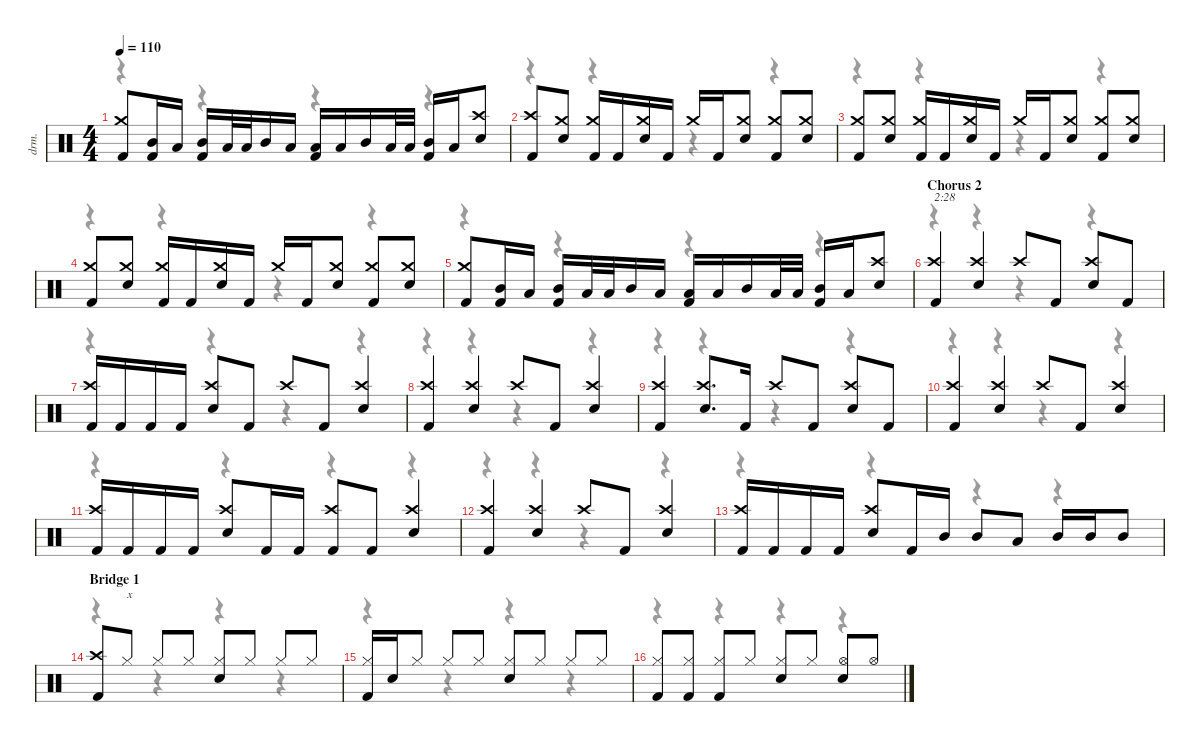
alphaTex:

\defaultSystemsLayout 4
\hideDynamics
\bracketExtendMode nobrackets
\otherSystemsTrackNameOrientation horizontal
\track ("Drums" "drm.") {instrument percussion}
\staff {score}
\articulation defaults
\voice
\ts (4 4)
\tempo 110
\clef neutral
\ks c
("Crash medium (hit)" "Kick (hit) 2").8{dy f beam Up} ("Mid Tom (hit)" "Kick (hit) 2").16{beam Up} "Low Tom (hit)".16{beam Up} ("Mid Tom (hit)" "Kick (hit) 2").16{beam Up} "Low Tom (hit)".32{beam Up} "Low Tom (hit)".32{beam Up} "Mid Tom (hit)".16{beam Up} "Low Tom (hit)".16{beam Up} ("Low Tom (hit)" "Kick (hit) 2").16{beam Up} "Low Tom (hit)".16{beam Up} "Mid Tom (hit)".16{beam Up} "Low Tom (hit)".32{beam Up} "Low Tom (hit)".32{beam Up} ("Mid Tom (hit)" "Kick (hit) 2").16{beam Up} "Low Tom (hit)".16{beam Up} ("Crash high (hit)" "Snare (hit) 2").8{beam Up} |
("Crash high (hit)" "Kick (hit) 2").8{beam Up} ("Crash medium (hit)" "Snare (hit) 2").8{beam Up} ("Crash medium (hit)" "Kick (hit) 2").16{beam Up} "Kick (hit) 2".16{beam Up} ("Crash medium (hit)" "Snare (hit) 2").16{beam Up} "Kick (hit) 2".16{beam Up} "Crash medium (hit)".16{beam Up} "Kick (hit) 2".16{beam Up} ("Crash medium (hit)" "Snare (hit) 2").8{beam Up} ("Crash medium (hit)" "Kick (hit) 2").8{beam Up} ("Crash medium (hit)" "Snare (hit) 2").8{beam Up} |
("Crash medium (hit)" "Kick (hit) 2").8{beam Up} ("Crash medium (hit)" "Snare (hit) 2").8{beam Up} ("Crash medium (hit)" "Kick (hit) 2").16{beam Up} "Kick (hit) 2".16{beam Up} ("Crash medium (hit)" "Snare (hit) 2").16{beam Up} "Kick (hit) 2".16{beam Up} "Crash medium (hit)".16{beam Up} "Kick (hit) 2".16{beam Up} ("Crash medium (hit)" "Snare (hit) 2").8{beam Up} ("Crash medium (hit)" "Kick (hit) 2").8{beam Up} ("Crash medium (hit)" "Snare (hit) 2").8{beam Up} |
("Crash medium (hit)" "Kick (hit) 2").8{beam Up} ("Crash medium (hit)" "Snare (hit) 2").8{beam Up} ("Crash medium (hit)" "Kick (hit) 2").16{beam Up} "Kick (hit) 2".16{beam Up} ("Crash medium (hit)" "Snare (hit) 2").16{beam Up} "Kick (hit) 2".16{beam Up} "Crash medium (hit)".16{beam Up} "Kick (hit) 2".16{beam Up} ("Crash medium (hit)" "Snare (hit) 2").8{beam Up} ("Crash medium (hit)" "Kick (hit) 2").8{beam Up} ("Crash medium (hit)" "Snare (hit) 2").8{beam Up} |
("Crash medium (hit)" "Kick (hit) 2").8{beam Up} ("Mid Tom (hit)" "Kick (hit) 2").16{beam Up} "Low Tom (hit)".16{beam Up} ("Mid Tom (hit)" "Kick (hit) 2").16{beam Up} "Low Tom (hit)".32{beam Up} "Low Tom (hit)".32{beam Up} "Mid Tom (hit)".16{beam Up} "Low Tom (hit)".16{beam Up} ("Low Tom (hit)" "Kick (hit) 2").16{beam Up} "Low Tom (hit)".16{beam Up} "Mid Tom (hit)".16{beam Up} "Low Tom (hit)".32{beam Up} "Low Tom (hit)".32{beam Up} ("Mid Tom (hit)" "Kick (hit) 2").16{beam Up} "Low Tom (hit)".16{beam Up} ("Crash high (hit)" "Snare (hit) 2").8{beam Up} |
\section ("" "Chorus 2")
("Crash high (hit)" "Kick (hit) 2").4{txt "2:28" beam Up} ("Crash high (hit)" "Snare (hit) 2").4{beam Up} "Crash high (hit)".8{beam Up} "Kick (hit) 2".8{beam Up} ("Crash high (hit)" "Snare (hit) 2").8{beam Up} "Kick (hit) 2".8{beam Up} |
("Crash high (hit)" "Kick (hit) 2").16{beam Up} "Kick (hit) 2".16{beam Up} "Kick (hit) 2".16{beam Up} "Kick (hit) 2".16{beam Up} ("Crash high (hit)" "Snare (hit) 2").8{beam Up} "Kick (hit) 2".8{beam Up} "Crash high (hit)".8{beam Up} "Kick (hit) 2".8{beam Up} ("Crash high (hit)" "Snare (hit) 2").4{beam Up} |
("Crash high (hit)" "Kick (hit) 2").4{beam Up} ("Crash high (hit)" "Snare (hit) 2").4{beam Up} "Crash high (hit)".8{beam Up} "Kick (hit) 2".8{beam Up} ("Crash high (hit)" "Snare (hit) 2").4{beam Up} |
("Crash high (hit)" "Kick (hit) 2").4{beam Up} ("Crash high (hit)" "Snare (hit) 2").8{d beam Up} "Kick (hit) 2".16{beam Up} "Crash high (hit)".8{beam Up} "Kick (hit) 2".8{beam Up} ("Crash high (hit)" "Snare (hit) 2").8{beam Up} "Kick (hit) 2".8{beam Up} |
("Crash high (hit)" "Kick (hit) 2").4{beam Up} ("Crash high (hit)" "Snare (hit) 2").4{beam Up} "Crash high (hit)".8{beam Up} "Kick (hit) 2".8{beam Up} ("Crash high (hit)" "Snare (hit) 2").4{beam Up} |
("Crash high (hit)" "Kick (hit) 2").16{beam Up} "Kick (hit) 2".16{beam Up} "Kick (hit) 2".16{beam Up} "Kick (hit) 2".16{beam Up} ("Crash high (hit)" "Snare (hit) 2").8{beam Up} "Kick (hit) 2".16{beam Up} "Kick (hit) 2".16{beam Up} ("Crash high (hit)" "Kick (hit) 2").8{beam Up} "Kick (hit) 2".8{beam Up} ("Crash high (hit)" "Snare (hit) 2").4{beam Up} |
("Crash high (hit)" "Kick (hit) 2").4{beam Up} ("Crash high (hit)" "Snare (hit) 2").4{beam Up} "Crash high (hit)".8{beam Up} "Kick (hit) 2".8{beam Up} ("Crash high (hit)" "Snare (hit) 2").4{beam Up} |
("Crash high (hit)" "Kick (hit) 2").16{beam Up} "Kick (hit) 2".16{beam Up} "Kick (hit) 2".16{beam Up} "Kick (hit) 2".16{beam Up} ("Crash high (hit)" "Snare (hit) 2").8{beam Up} "Kick (hit) 2".16{beam Up} "Mid Tom (hit)".16{beam Up} "Mid Tom (hit)".8{beam Up} "Low Tom (hit)".8{beam Up} "Mid Tom (hit)".16{beam Up} "Mid Tom (hit)".16{beam Up} "Mid Tom (hit)".8{beam Up} |
\section ("" "Bridge 1")
("Crash high (hit)" "Kick (hit) 2").8{beam Up} "Hi-Hat (closed)".8{txt "x" beam Up} "Hi-Hat (closed)".8{beam Up} "Hi-Hat (closed)".8{beam Up} ("Hi-Hat (closed)" "Snare (hit) 2").8{beam Up} "Hi-Hat (closed)".8{beam Up} "Hi-Hat (closed)".8{beam Up} "Hi-Hat (closed)".8{beam Up} |
("Hi-Hat (closed)" "Kick (hit) 2").16{beam Up} "Snare (hit) 2".16{beam Up} "Hi-Hat (closed)".8{beam Up} "Hi-Hat (closed)".8{beam Up} "Hi-Hat (closed)".8{beam Up} ("Hi-Hat (closed)" "Snare (hit) 2").8{beam Up} "Hi-Hat (closed)".8{beam Up} "Hi-Hat (closed)".8{beam Up} "Hi-Hat (closed)".8{beam Up} |
("Hi-Hat (closed)" "Kick (hit) 2").8{beam Up} ("Hi-Hat (closed)" "Kick (hit) 2").8{beam Up} ("Hi-Hat (closed)" "Kick (hit) 2").8{beam Up} "Hi-Hat (closed)".8{beam Up} ("Hi-Hat (closed)" "Snare (hit) 2").8{beam Up} "Hi-Hat (closed)".8{beam Up} ("Hi-Hat (open)" "Snare (hit) 2").8{beam Up} "Hi-Hat (open)".8{beam Up}
\voice
\clef neutral
\ottava regular
\simile none
\ks c
r.4{dy mf beam Down} r.4{beam Down} r.4{beam Down} r.4{beam Down} |
r.4{beam Down} r.4{beam Down} r.4{beam Down} r.4{beam Down} |
r.4{beam Down} r.4{beam Down} r.4{beam Down} r.4{beam Down} |
r.4{beam Down} r.4{beam Down} r.4{beam Down} r.4{beam Down} |
r.4{beam Down} r.4{beam Down} r.4{beam Down} r.4{beam Down} |
r.4{beam Down} r.4{beam Down} r.4{beam Down} r.4{beam Down} |
r.4{beam Down} r.4{beam Down} r.4{beam Down} r.4{beam Down} |
r.4{beam Down} r.4{beam Down} r.4{beam Down} r.4{beam Down} |
r.4{beam Down} r.4{beam Down} r.4{beam Down} r.4{beam Down} |
r.4{beam Down} r.4{beam Down} r.4{beam Down} r.4{beam Down} |
r.4{beam Down} r.4{beam Down} r.4{beam Down} r.4{beam Down} |
r.4{beam Down} r.4{beam Down} r.4{beam Down} r.4{beam Down} |
r.4{beam Down} r.4{beam Down} r.4{beam Down} r.4{beam Down} |
r.4{beam Down} r.4{beam Down} r.4{beam Down} r.4{beam Down} |
r.4{beam Down} r.4{beam Down} r.4{beam Down} r.4{beam Down} |
r.4{beam Down} r.4{beam Down} r.4{beam Down} r.4{beam Down}
